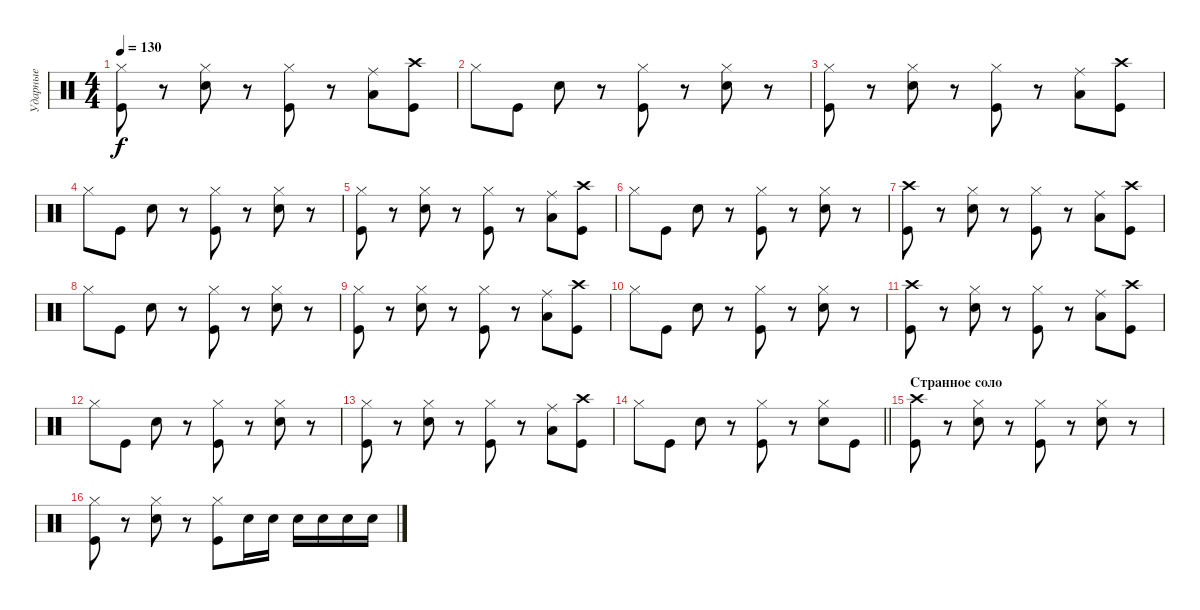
\track ("Ударные" "Ударные") {instrument percussion}
\staff {score}
\articulation defaults
\ts (4 4)
\tempo 130
\clef neutral
\ks c
("Hi-Hat (closed)" "Kick (hit)").8{dy f} r.8 ("Hi-Hat (closed)" "Snare (hit) 2").8 r.8 ("Hi-Hat (closed)" "Kick (hit)").8 r.8 ("Ride (middle)" "Low Tom (hit)").8 ("Crash high (hit)" "Kick (hit)").8 |
"Hi-Hat (closed)".8 "Kick (hit)".8 "Snare (hit) 2".8 r.8 ("Hi-Hat (closed)" "Kick (hit)").8 r.8 ("Hi-Hat (closed)" "Snare (hit) 2").8 r.8 |
("Hi-Hat (closed)" "Kick (hit)").8 r.8 ("Hi-Hat (closed)" "Snare (hit) 2").8 r.8 ("Hi-Hat (closed)" "Kick (hit)").8 r.8 ("Ride (middle)" "Low Tom (hit)").8 ("Crash high (hit)" "Kick (hit)").8 |
"Hi-Hat (closed)".8 "Kick (hit)".8 "Snare (hit) 2".8 r.8 ("Hi-Hat (closed)" "Kick (hit)").8 r.8 ("Hi-Hat (closed)" "Snare (hit) 2").8 r.8 |
("Hi-Hat (closed)" "Kick (hit)").8 r.8 ("Hi-Hat (closed)" "Snare (hit) 2").8 r.8 ("Hi-Hat (closed)" "Kick (hit)").8 r.8 ("Ride (middle)" "Low Tom (hit)").8 ("Crash high (hit)" "Kick (hit)").8 |
"Hi-Hat (closed)".8 "Kick (hit)".8 "Snare (hit) 2".8 r.8 ("Hi-Hat (closed)" "Kick (hit)").8 r.8 ("Hi-Hat (closed)" "Snare (hit) 2").8 r.8 |
("Crash high (hit)" "Kick (hit)").8 r.8 ("Hi-Hat (closed)" "Snare (hit) 2").8 r.8 ("Hi-Hat (closed)" "Kick (hit)").8 r.8 ("Ride (middle)" "Low Tom (hit)").8 ("Crash high (hit)" "Kick (hit)").8 |
"Hi-Hat (closed)".8 "Kick (hit)".8 "Snare (hit) 2".8 r.8 ("Hi-Hat (closed)" "Kick (hit)").8 r.8 ("Hi-Hat (closed)" "Snare (hit) 2").8 r.8 |
("Hi-Hat (closed)" "Kick (hit)").8 r.8 ("Hi-Hat (closed)" "Snare (hit) 2").8 r.8 ("Hi-Hat (closed)" "Kick (hit)").8 r.8 ("Ride (middle)" "Low Tom (hit)").8 ("Crash high (hit)" "Kick (hit)").8 |
"Hi-Hat (closed)".8 "Kick (hit)".8 "Snare (hit) 2".8 r.8 ("Hi-Hat (closed)" "Kick (hit)").8 r.8 ("Hi-Hat (closed)" "Snare (hit) 2").8 r.8 |
("Crash high (hit)" "Kick (hit)").8 r.8 ("Hi-Hat (closed)" "Snare (hit) 2").8 r.8 ("Hi-Hat (closed)" "Kick (hit)").8 r.8 ("Ride (middle)" "Low Tom (hit)").8 ("Crash high (hit)" "Kick (hit)").8 |
"Hi-Hat (closed)".8 "Kick (hit)".8 "Snare (hit) 2".8 r.8 ("Hi-Hat (closed)" "Kick (hit)").8 r.8 ("Hi-Hat (closed)" "Snare (hit) 2").8 r.8 |
("Hi-Hat (closed)" "Kick (hit)").8 r.8 ("Hi-Hat (closed)" "Snare (hit) 2").8 r.8 ("Hi-Hat (closed)" "Kick (hit)").8 r.8 ("Ride (middle)" "Low Tom (hit)").8 ("Crash high (hit)" "Kick (hit)").8 |
\barLineRight lightlight "Hi-Hat (closed)".8 "Kick (hit)".8 "Snare (hit) 2".8
r.8 ("Hi-Hat (closed)" "Kick (hit)").8 r.8 ("Hi-Hat (closed)" "Snare (hit) 2").8 "Kick (hit)".8 |
\section ("" "Странное соло")
("Crash high (hit)" "Kick (hit)").8 r.8 ("Hi-Hat (closed)" "Snare (hit) 2").8 r.8 ("Hi-Hat (closed)" "Kick (hit)").8 r.8 ("Hi-Hat (closed)" "Snare (hit) 2").8 r.8 |
("Hi-Hat (closed)" "Kick (hit)").8 r.8 ("Hi-Hat (closed)" "Snare (hit) 2").8 r.8 ("Hi-Hat (closed)" "Kick (hit)").8 "Snare (hit) 2".16 "Snare (hit) 2".16 "Snare (hit) 2".16 "Snare (hit) 2".16 "Snare (hit) 2".16 "Snare (hit) 2".16
